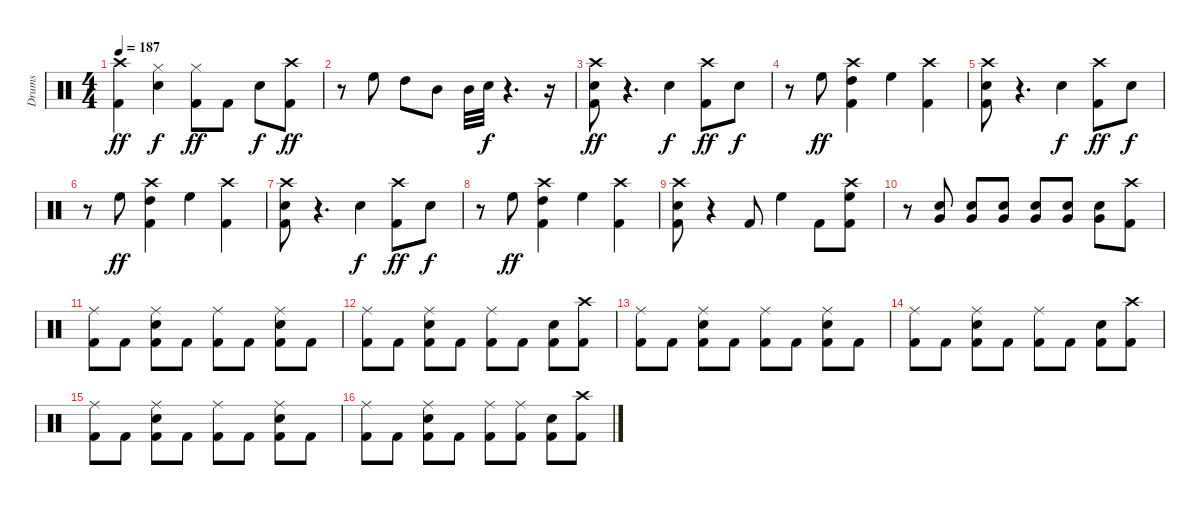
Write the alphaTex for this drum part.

\track ("Drums" "Drums") {instrument percussion}
\staff {score}
\articulation defaults
\ts (4 4)
\tempo 187
\clef neutral
\ks c
("Crash high (hit)" "Kick (hit) 2").4{dy ff} ("Hi-Hat (closed)" "Electric Snare (hit)").4{dy f} ("Hi-Hat (closed)" "Kick (hit) 2").8{dy ff} "Kick (hit) 2".8 "Electric Snare (hit)".8{dy f} ("Crash high (hit)" "Kick (hit) 2").8{dy ff} |
r.8 "High Floor Tom (hit)".8 "High Tom (hit)".8 "Mid Tom (hit)".8 "Mid Tom (hit)".32 "Electric Snare (hit)".32{dy f} r.4{d} r.16 |
("Crash high (hit)" "Electric Snare (hit)" "Kick (hit) 2").8{dy ff} r.4{d} "Electric Snare (hit)".4{dy f} ("Crash high (hit)" "Kick (hit) 2").8{dy ff} "Electric Snare (hit)".8{dy f} |
r.8 "High Floor Tom (hit)".8{dy ff} ("Crash high (hit)" "High Tom (hit)" "Kick (hit) 2").4 "High Floor Tom (hit)".4 ("Crash high (hit)" "Kick (hit) 2").4 |
("Crash high (hit)" "Electric Snare (hit)" "Kick (hit) 2").8 r.4{d} "Electric Snare (hit)".4{dy f} ("Crash high (hit)" "Kick (hit) 2").8{dy ff} "Electric Snare (hit)".8{dy f} |
r.8 "High Floor Tom (hit)".8{dy ff} ("Crash high (hit)" "High Tom (hit)" "Kick (hit) 2").4 "High Floor Tom (hit)".4 ("Crash high (hit)" "Kick (hit) 2").4 |
("Crash high (hit)" "Electric Snare (hit)" "Kick (hit) 2").8 r.4{d} "Electric Snare (hit)".4{dy f} ("Crash high (hit)" "Kick (hit) 2").8{dy ff} "Electric Snare (hit)".8{dy f} |
r.8 "High Floor Tom (hit)".8{dy ff} ("Crash high (hit)" "High Tom (hit)" "Kick (hit) 2").4 "High Floor Tom (hit)".4 ("Crash high (hit)" "Kick (hit) 2").4 |
("Crash high (hit)" "Electric Snare (hit)" "Kick (hit) 2").8 r.4 "Kick (hit) 2".8 "High Floor Tom (hit)".4 "Kick (hit) 2".8 ("Crash high (hit)" "High Floor Tom (hit)" "Kick (hit) 2").8 |
r.8 ("Very Low Tom (hit)" "Electric Snare (hit)").8 ("Very Low Tom (hit)" "Electric Snare (hit)").8 ("Very Low Tom (hit)" "Electric Snare (hit)").8 ("Very Low Tom (hit)" "Electric Snare (hit)").8 ("Very Low Tom (hit)" "Electric Snare (hit)").8 ("Very Low Tom (hit)" "Electric Snare (hit)").8 ("Crash high (hit)" "Kick (hit) 2").8 |
("Ride (middle)" "Kick (hit) 2").8 "Kick (hit) 2".8 ("Ride (middle)" "Electric Snare (hit)" "Kick (hit) 2").8 "Kick (hit) 2".8 ("Ride (middle)" "Kick (hit) 2").8 "Kick (hit) 2".8 ("Ride (middle)" "Electric Snare (hit)" "Kick (hit) 2").8 "Kick (hit) 2".8 |
("Ride (middle)" "Kick (hit) 2").8 "Kick (hit) 2".8 ("Ride (middle)" "Electric Snare (hit)" "Kick (hit) 2").8 "Kick (hit) 2".8 ("Ride (middle)" "Kick (hit) 2").8 "Kick (hit) 2".8 ("Electric Snare (hit)" "Kick (hit) 2").8 ("Crash high (hit)" "Kick (hit) 2").8 |
("Ride (middle)" "Kick (hit) 2").8 "Kick (hit) 2".8 ("Ride (middle)" "Electric Snare (hit)" "Kick (hit) 2").8 "Kick (hit) 2".8 ("Ride (middle)" "Kick (hit) 2").8 "Kick (hit) 2".8 ("Ride (middle)" "Electric Snare (hit)" "Kick (hit) 2").8 "Kick (hit) 2".8 |
("Ride (middle)" "Kick (hit) 2").8 "Kick (hit) 2".8 ("Ride (middle)" "Electric Snare (hit)" "Kick (hit) 2").8 "Kick (hit) 2".8 ("Ride (middle)" "Kick (hit) 2").8 "Kick (hit) 2".8 ("Electric Snare (hit)" "Kick (hit) 2").8 ("Crash high (hit)" "Kick (hit) 2").8 |
("Ride (middle)" "Kick (hit) 2").8 "Kick (hit) 2".8 ("Ride (middle)" "Electric Snare (hit)" "Kick (hit) 2").8 "Kick (hit) 2".8 ("Ride (middle)" "Kick (hit) 2").8 "Kick (hit) 2".8 ("Ride (middle)" "Electric Snare (hit)" "Kick (hit) 2").8 "Kick (hit) 2".8 |
("Ride (middle)" "Kick (hit) 2").8 "Kick (hit) 2".8 ("Ride (middle)" "Electric Snare (hit)" "Kick (hit) 2").8 "Kick (hit) 2".8 ("Ride (middle)" "Kick (hit) 2").8 ("Ride (middle)" "Kick (hit) 2").8 ("Electric Snare (hit)" "Kick (hit) 2").8 ("Crash high (hit)" "Kick (hit) 2").8
